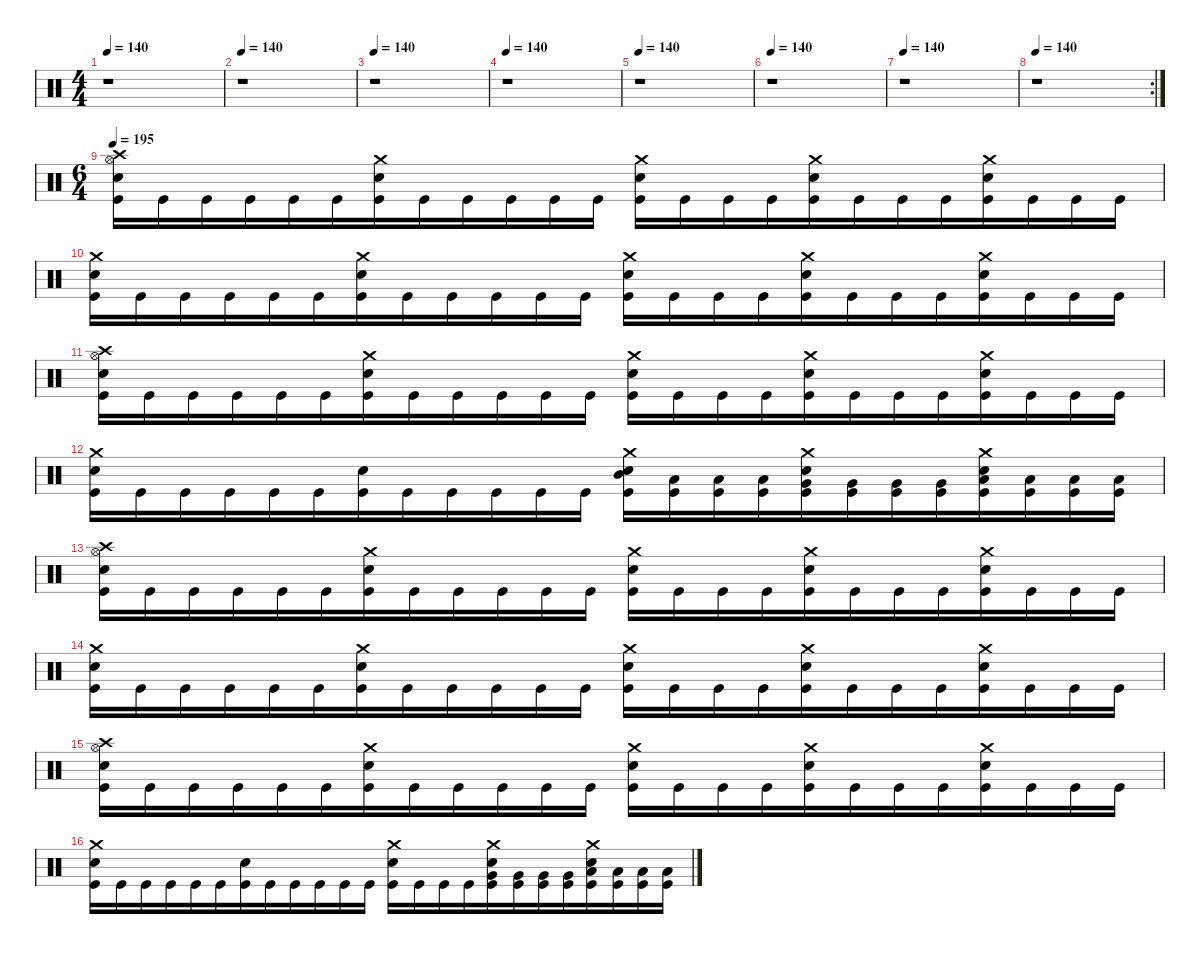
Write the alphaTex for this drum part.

\defaultSystemsLayout 4
\hideDynamics
\bracketExtendMode nobrackets
\singleTrackTrackNamePolicy hidden
\multiTrackTrackNamePolicy hidden
\firstSystemTrackNameMode fullname
\firstSystemTrackNameOrientation horizontal
\otherSystemsTrackNameOrientation horizontal
\track ("Percussion" "drm.") {instrument percussion}
\staff {score}
\articulation defaults
\ts (4 4)
\beaming (8 2 2 2 2)
\tempo 140
\clef neutral
\ks c
r.1{dy f beam Down} |
\tempo 140
r.1{beam Down} |
\tempo 140
r.1{beam Down} |
\tempo 140
r.1{beam Down} |
\tempo 140
r.1{beam Down} |
\tempo 140
r.1{beam Down} |
\tempo 140
r.1{beam Down} |
\rc 2
\tempo 140
r.1{beam Down} |
\ts (6 4)
\beaming (8 6 6)
\tempo 195
("Crash high (hit)" "Hi-Hat (open)" "Snare (hit) 2" "Kick (hit)").16{beam Down} "Kick (hit)".16{beam Down} "Kick (hit)".16{beam Down} "Kick (hit)".16{beam Down} "Kick (hit)".16{beam Down} "Kick (hit)".16{beam Down} ("Crash medium (hit)" "Snare (hit) 2" "Kick (hit)").16{beam Down} "Kick (hit)".16{beam Down} "Kick (hit)".16{beam Down} "Kick (hit)".16{beam Down} "Kick (hit)".16{beam Down} "Kick (hit)".16{beam Down} ("Crash medium (hit)" "Snare (hit) 2" "Kick (hit)").16{beam Down} "Kick (hit)".16{beam Down} "Kick (hit)".16{beam Down} "Kick (hit)".16{beam Down} ("Crash medium (hit)" "Snare (hit) 2" "Kick (hit)").16{beam Down} "Kick (hit)".16{beam Down} "Kick (hit)".16{beam Down} "Kick (hit)".16{beam Down} ("Crash medium (hit)" "Snare (hit) 2" "Kick (hit)").16{beam Down} "Kick (hit)".16{beam Down} "Kick (hit)".16{beam Down} "Kick (hit)".16{beam Down} |
("Crash medium (hit)" "Snare (hit) 2" "Kick (hit)").16{beam Down} "Kick (hit)".16{beam Down} "Kick (hit)".16{beam Down} "Kick (hit)".16{beam Down} "Kick (hit)".16{beam Down} "Kick (hit)".16{beam Down} ("Crash medium (hit)" "Snare (hit) 2" "Kick (hit)").16{beam Down} "Kick (hit)".16{beam Down} "Kick (hit)".16{beam Down} "Kick (hit)".16{beam Down} "Kick (hit)".16{beam Down} "Kick (hit)".16{beam Down} ("Crash medium (hit)" "Snare (hit) 2" "Kick (hit)").16{beam Down} "Kick (hit)".16{beam Down} "Kick (hit)".16{beam Down} "Kick (hit)".16{beam Down} ("Crash medium (hit)" "Snare (hit) 2" "Kick (hit)").16{beam Down} "Kick (hit)".16{beam Down} "Kick (hit)".16{beam Down} "Kick (hit)".16{beam Down} ("Crash medium (hit)" "Snare (hit) 2" "Kick (hit)").16{beam Down} "Kick (hit)".16{beam Down} "Kick (hit)".16{beam Down} "Kick (hit)".16{beam Down} |
("Crash high (hit)" "Hi-Hat (open)" "Snare (hit) 2" "Kick (hit)").16{beam Down} "Kick (hit)".16{beam Down} "Kick (hit)".16{beam Down} "Kick (hit)".16{beam Down} "Kick (hit)".16{beam Down} "Kick (hit)".16{beam Down} ("Crash medium (hit)" "Snare (hit) 2" "Kick (hit)").16{beam Down} "Kick (hit)".16{beam Down} "Kick (hit)".16{beam Down} "Kick (hit)".16{beam Down} "Kick (hit)".16{beam Down} "Kick (hit)".16{beam Down} ("Crash medium (hit)" "Snare (hit) 2" "Kick (hit)").16{beam Down} "Kick (hit)".16{beam Down} "Kick (hit)".16{beam Down} "Kick (hit)".16{beam Down} ("Crash medium (hit)" "Snare (hit) 2" "Kick (hit)").16{beam Down} "Kick (hit)".16{beam Down} "Kick (hit)".16{beam Down} "Kick (hit)".16{beam Down} ("Crash medium (hit)" "Snare (hit) 2" "Kick (hit)").16{beam Down} "Kick (hit)".16{beam Down} "Kick (hit)".16{beam Down} "Kick (hit)".16{beam Down} |
("Crash medium (hit)" "Snare (hit) 2" "Kick (hit)").16{beam Down} "Kick (hit)".16{beam Down} "Kick (hit)".16{beam Down} "Kick (hit)".16{beam Down} "Kick (hit)".16{beam Down} "Kick (hit)".16{beam Down} ("Snare (hit) 2" "Kick (hit)").16{beam Down} "Kick (hit)".16{beam Down} "Kick (hit)".16{beam Down} "Kick (hit)".16{beam Down} "Kick (hit)".16{beam Down} "Kick (hit)".16{beam Down} ("Mid Tom (hit)" "Crash medium (hit)" "Snare (hit) 2" "Kick (hit)").16{beam Down} ("Low Tom (hit)" "Kick (hit)").16{beam Down} ("Low Tom (hit)" "Kick (hit)").16{beam Down} ("Low Tom (hit)" "Kick (hit)").16{beam Down} ("Very Low Tom (hit)" "Crash medium (hit)" "Snare (hit) 2" "Kick (hit)").16{beam Down} ("Very Low Tom (hit)" "Kick (hit)").16{beam Down} ("Very Low Tom (hit)" "Kick (hit)").16{beam Down} ("Very Low Tom (hit)" "Kick (hit)").16{beam Down} ("Low Floor Tom (hit)" "Crash medium (hit)" "Snare (hit) 2" "Kick (hit)").16{beam Down} ("Low Floor Tom (hit)" "Kick (hit)").16{beam Down} ("Low Floor Tom (hit)" "Kick (hit)").16{beam Down} ("Low Floor Tom (hit)" "Kick (hit)").16{beam Down} |
("Crash high (hit)" "Hi-Hat (open)" "Snare (hit) 2" "Kick (hit)").16{beam Down} "Kick (hit)".16{beam Down} "Kick (hit)".16{beam Down} "Kick (hit)".16{beam Down} "Kick (hit)".16{beam Down} "Kick (hit)".16{beam Down} ("Crash medium (hit)" "Snare (hit) 2" "Kick (hit)").16{beam Down} "Kick (hit)".16{beam Down} "Kick (hit)".16{beam Down} "Kick (hit)".16{beam Down} "Kick (hit)".16{beam Down} "Kick (hit)".16{beam Down} ("Crash medium (hit)" "Snare (hit) 2" "Kick (hit)").16{beam Down} "Kick (hit)".16{beam Down} "Kick (hit)".16{beam Down} "Kick (hit)".16{beam Down} ("Crash medium (hit)" "Snare (hit) 2" "Kick (hit)").16{beam Down} "Kick (hit)".16{beam Down} "Kick (hit)".16{beam Down} "Kick (hit)".16{beam Down} ("Crash medium (hit)" "Snare (hit) 2" "Kick (hit)").16{beam Down} "Kick (hit)".16{beam Down} "Kick (hit)".16{beam Down} "Kick (hit)".16{beam Down} |
("Crash medium (hit)" "Snare (hit) 2" "Kick (hit)").16{beam Down} "Kick (hit)".16{beam Down} "Kick (hit)".16{beam Down} "Kick (hit)".16{beam Down} "Kick (hit)".16{beam Down} "Kick (hit)".16{beam Down} ("Crash medium (hit)" "Snare (hit) 2" "Kick (hit)").16{beam Down} "Kick (hit)".16{beam Down} "Kick (hit)".16{beam Down} "Kick (hit)".16{beam Down} "Kick (hit)".16{beam Down} "Kick (hit)".16{beam Down} ("Crash medium (hit)" "Snare (hit) 2" "Kick (hit)").16{beam Down} "Kick (hit)".16{beam Down} "Kick (hit)".16{beam Down} "Kick (hit)".16{beam Down} ("Crash medium (hit)" "Snare (hit) 2" "Kick (hit)").16{beam Down} "Kick (hit)".16{beam Down} "Kick (hit)".16{beam Down} "Kick (hit)".16{beam Down} ("Crash medium (hit)" "Snare (hit) 2" "Kick (hit)").16{beam Down} "Kick (hit)".16{beam Down} "Kick (hit)".16{beam Down} "Kick (hit)".16{beam Down} |
("Crash high (hit)" "Hi-Hat (open)" "Snare (hit) 2" "Kick (hit)").16{beam Down} "Kick (hit)".16{beam Down} "Kick (hit)".16{beam Down} "Kick (hit)".16{beam Down} "Kick (hit)".16{beam Down} "Kick (hit)".16{beam Down} ("Crash medium (hit)" "Snare (hit) 2" "Kick (hit)").16{beam Down} "Kick (hit)".16{beam Down} "Kick (hit)".16{beam Down} "Kick (hit)".16{beam Down} "Kick (hit)".16{beam Down} "Kick (hit)".16{beam Down} ("Crash medium (hit)" "Snare (hit) 2" "Kick (hit)").16{beam Down} "Kick (hit)".16{beam Down} "Kick (hit)".16{beam Down} "Kick (hit)".16{beam Down} ("Crash medium (hit)" "Snare (hit) 2" "Kick (hit)").16{beam Down} "Kick (hit)".16{beam Down} "Kick (hit)".16{beam Down} "Kick (hit)".16{beam Down} ("Crash medium (hit)" "Snare (hit) 2" "Kick (hit)").16{beam Down} "Kick (hit)".16{beam Down} "Kick (hit)".16{beam Down} "Kick (hit)".16{beam Down} |
("Crash medium (hit)" "Snare (hit) 2" "Kick (hit)").16{beam Down} "Kick (hit)".16{beam Down} "Kick (hit)".16{beam Down} "Kick (hit)".16{beam Down} "Kick (hit)".16{beam Down} "Kick (hit)".16{beam Down} ("Snare (hit) 2" "Kick (hit)").16{beam Down} "Kick (hit)".16{beam Down} "Kick (hit)".16{beam Down} "Kick (hit)".16{beam Down} "Kick (hit)".16{beam Down} "Kick (hit)".16{beam Down} ("Crash medium (hit)" "Snare (hit) 2" "Kick (hit)").16{beam Down} "Kick (hit)".16{beam Down} "Kick (hit)".16{beam Down} "Kick (hit)".16{beam Down} ("Very Low Tom (hit)" "Crash medium (hit)" "Snare (hit) 2" "Kick (hit)").16{beam Down} ("Very Low Tom (hit)" "Kick (hit)").16{beam Down} ("Very Low Tom (hit)" "Kick (hit)").16{beam Down} ("Very Low Tom (hit)" "Kick (hit)").16{beam Down} ("Low Floor Tom (hit)" "Crash medium (hit)" "Snare (hit) 2" "Kick (hit)").16{beam Down} ("Low Floor Tom (hit)" "Kick (hit)").16{beam Down} ("Low Floor Tom (hit)" "Kick (hit)").16{beam Down} ("Low Floor Tom (hit)" "Kick (hit)").16{beam Down}
